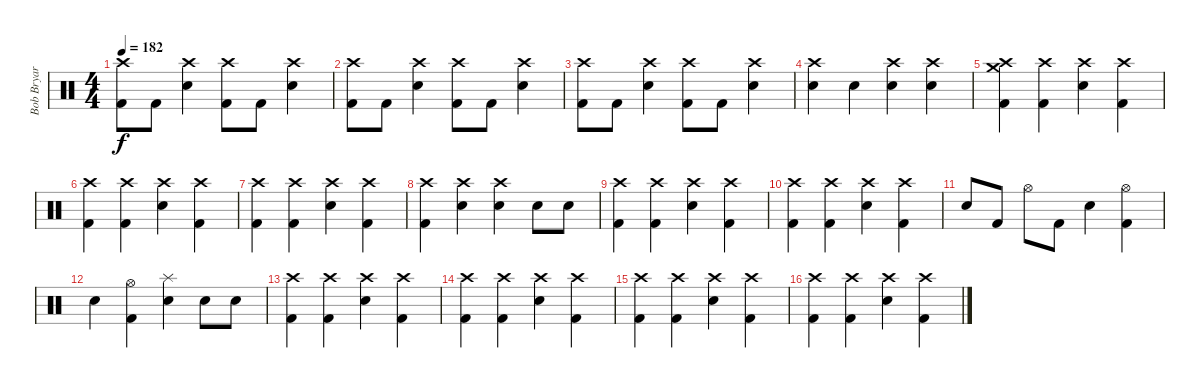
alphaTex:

\track ("Bob Bryar" "Bob Bryar") {instrument percussion}
\staff {score}
\articulation defaults
\ts (4 4)
\tempo 182
\clef neutral
\ks c
("Kick (hit) 2" "Crash high (hit)").8{dy f} "Kick (hit) 2".8 ("Snare (hit) 2" "Crash high (hit)").4 ("Kick (hit) 2" "Crash high (hit)").8 "Kick (hit) 2".8 ("Snare (hit) 2" "Crash high (hit)").4 |
("Kick (hit) 2" "Crash high (hit)").8 "Kick (hit) 2".8 ("Snare (hit) 2" "Crash high (hit)").4 ("Kick (hit) 2" "Crash high (hit)").8 "Kick (hit) 2".8 ("Snare (hit) 2" "Crash high (hit)").4 |
("Kick (hit) 2" "Crash high (hit)").8 "Kick (hit) 2".8 ("Snare (hit) 2" "Crash high (hit)").4 ("Kick (hit) 2" "Crash high (hit)").8 "Kick (hit) 2".8 ("Snare (hit) 2" "Crash high (hit)").4 |
("Snare (hit) 2" "Crash high (hit)").4 "Snare (hit) 2".4 ("Snare (hit) 2" "Crash high (hit)").4 ("Snare (hit) 2" "Crash high (hit)").4 |
("Crash high (hit)" "Crash medium (hit)" "Kick (hit) 2").4 ("Kick (hit) 2" "Crash high (hit)").4 ("Snare (hit) 2" "Crash high (hit)").4 ("Crash high (hit)" "Kick (hit) 2").4 |
("Kick (hit) 2" "Crash high (hit)").4 ("Kick (hit) 2" "Crash high (hit)").4 ("Snare (hit) 2" "Crash high (hit)").4 ("Crash high (hit)" "Kick (hit) 2").4 |
("Kick (hit) 2" "Crash high (hit)").4 ("Kick (hit) 2" "Crash high (hit)").4 ("Snare (hit) 2" "Crash high (hit)").4 ("Crash high (hit)" "Kick (hit) 2").4 |
("Kick (hit) 2" "Crash high (hit)").4 ("Snare (hit) 2" "Crash high (hit)").4 ("Snare (hit) 2" "Crash high (hit)").4 "Snare (hit) 2".8 "Snare (hit) 2".8 |
("Kick (hit) 2" "Crash high (hit)").4 ("Kick (hit) 2" "Crash high (hit)").4 ("Snare (hit) 2" "Crash high (hit)").4 ("Crash high (hit)" "Kick (hit) 2").4 |
("Kick (hit) 2" "Crash high (hit)").4 ("Kick (hit) 2" "Crash high (hit)").4 ("Snare (hit) 2" "Crash high (hit)").4 ("Crash high (hit)" "Kick (hit) 2").4 |
"Snare (hit) 2".8 "Kick (hit) 2".8 "Hi-Hat (open)".8 "Kick (hit) 2".8 "Snare (hit) 2".4 ("Kick (hit) 2" "Hi-Hat (open)").4 |
"Snare (hit) 2".4 ("Hi-Hat (open)" "Kick (hit) 2").4 ("Snare (hit) 2" "Splash (hit)").4 "Snare (hit) 2".8 "Snare (hit) 2".8 |
("Kick (hit) 2" "Crash high (hit)").4 ("Kick (hit) 2" "Crash high (hit)").4 ("Snare (hit) 2" "Crash high (hit)").4 ("Crash high (hit)" "Kick (hit) 2").4 |
("Kick (hit) 2" "Crash high (hit)").4 ("Kick (hit) 2" "Crash high (hit)").4 ("Snare (hit) 2" "Crash high (hit)").4 ("Crash high (hit)" "Kick (hit) 2").4 |
("Kick (hit) 2" "Crash high (hit)").4 ("Kick (hit) 2" "Crash high (hit)").4 ("Snare (hit) 2" "Crash high (hit)").4 ("Crash high (hit)" "Kick (hit) 2").4 |
("Kick (hit) 2" "Crash high (hit)").4 ("Kick (hit) 2" "Crash high (hit)").4 ("Snare (hit) 2" "Crash high (hit)").4 ("Crash high (hit)" "Kick (hit) 2").4
